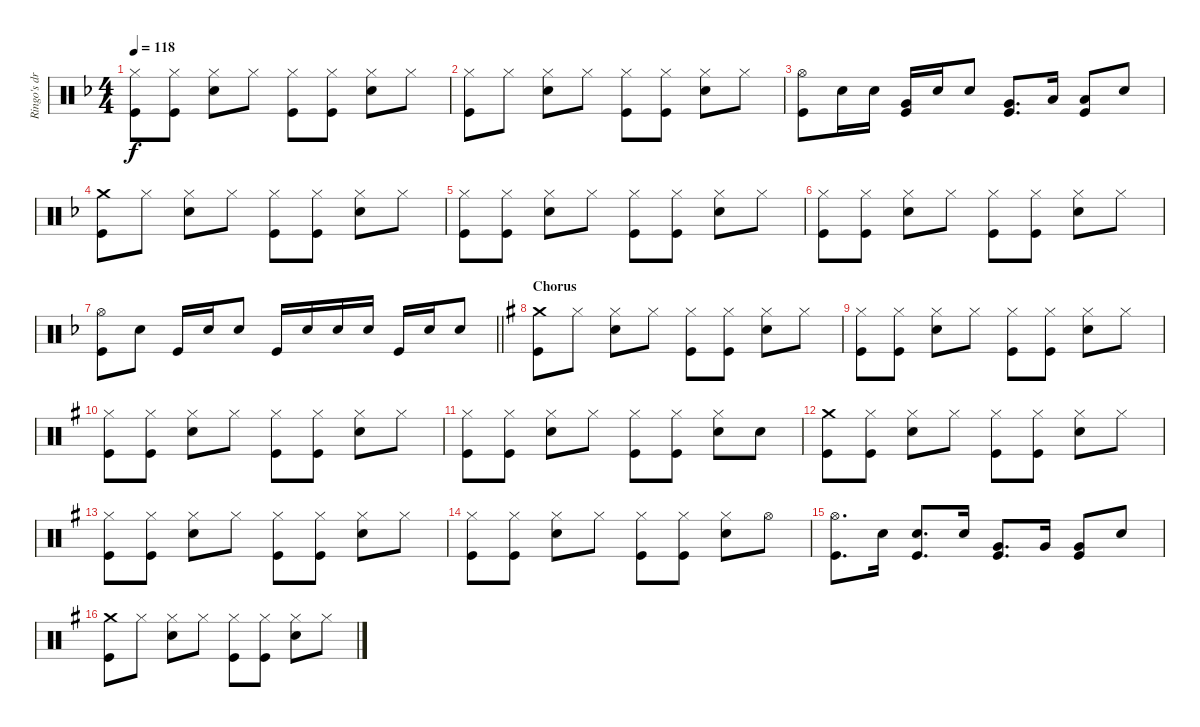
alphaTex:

\track ("Ringo's drums" "Ringo's dr") {instrument percussion}
\staff {score}
\articulation defaults
\ts (4 4)
\tempo 118
\clef neutral
\ks f
("Hi-Hat (closed)" "Kick (hit)").8{dy f} ("Hi-Hat (closed)" "Kick (hit)").8 ("Hi-Hat (closed)" "Electric Snare (hit)").8 "Hi-Hat (closed)".8 ("Hi-Hat (closed)" "Kick (hit)").8 ("Hi-Hat (closed)" "Kick (hit)").8 ("Hi-Hat (closed)" "Electric Snare (hit)").8 "Hi-Hat (closed)".8 |
("Hi-Hat (closed)" "Kick (hit)").8 "Hi-Hat (closed)".8 ("Hi-Hat (closed)" "Electric Snare (hit)").8 "Hi-Hat (closed)".8 ("Hi-Hat (closed)" "Kick (hit)").8 ("Hi-Hat (closed)" "Kick (hit)").8 ("Hi-Hat (closed)" "Electric Snare (hit)").8 "Hi-Hat (closed)".8 |
("Hi-Hat (open)" "Kick (hit)").8 "Electric Snare (hit)".16 "Electric Snare (hit)".16 ("Very Low Tom (hit)" "Kick (hit)").16 "Electric Snare (hit)".16 "Electric Snare (hit)".8 ("Very Low Tom (hit)" "Kick (hit)").8{d} "Low Floor Tom (hit)".16 ("Low Floor Tom (hit)" "Kick (hit)").8 "Electric Snare (hit)".8 |
("Crash medium (hit)" "Kick (hit)").8 "Hi-Hat (closed)".8 ("Hi-Hat (closed)" "Electric Snare (hit)").8 "Hi-Hat (closed)".8 ("Hi-Hat (closed)" "Kick (hit)").8 ("Hi-Hat (closed)" "Kick (hit)").8 ("Hi-Hat (closed)" "Electric Snare (hit)").8 "Hi-Hat (closed)".8 |
("Hi-Hat (closed)" "Kick (hit)").8 ("Hi-Hat (closed)" "Kick (hit)").8 ("Hi-Hat (closed)" "Electric Snare (hit)").8 "Hi-Hat (closed)".8 ("Hi-Hat (closed)" "Kick (hit)").8 ("Hi-Hat (closed)" "Kick (hit)").8 ("Hi-Hat (closed)" "Electric Snare (hit)").8 "Hi-Hat (closed)".8 |
("Hi-Hat (closed)" "Kick (hit)").8 ("Hi-Hat (closed)" "Kick (hit)").8 ("Hi-Hat (closed)" "Electric Snare (hit)").8 "Hi-Hat (closed)".8 ("Hi-Hat (closed)" "Kick (hit)").8 ("Hi-Hat (closed)" "Kick (hit)").8 ("Hi-Hat (closed)" "Electric Snare (hit)").8 "Hi-Hat (closed)".8 |
\barLineRight lightlight
("Hi-Hat (open)" "Kick (hit)").8 "Electric Snare (hit)".8 "Kick (hit)".16 "Electric Snare (hit)".16 "Electric Snare (hit)".8 "Kick (hit)".16 "Electric Snare (hit)".16 "Electric Snare (hit)".16 "Electric Snare (hit)".16 "Kick (hit)".16 "Electric Snare (hit)".16 "Electric Snare (hit)".8 |
\section ("" "Chorus")
\ks g
("Crash medium (hit)" "Kick (hit)").8 "Hi-Hat (closed)".8 ("Hi-Hat (closed)" "Electric Snare (hit)").8 "Hi-Hat (closed)".8 ("Hi-Hat (closed)" "Kick (hit)").8 ("Hi-Hat (closed)" "Kick (hit)").8 ("Hi-Hat (closed)" "Electric Snare (hit)").8 "Hi-Hat (closed)".8 |
("Hi-Hat (closed)" "Kick (hit)").8 ("Hi-Hat (closed)" "Kick (hit)").8 ("Hi-Hat (closed)" "Electric Snare (hit)").8 "Hi-Hat (closed)".8 ("Hi-Hat (closed)" "Kick (hit)").8 ("Hi-Hat (closed)" "Kick (hit)").8 ("Hi-Hat (closed)" "Electric Snare (hit)").8 "Hi-Hat (closed)".8 |
("Hi-Hat (closed)" "Kick (hit)").8 ("Hi-Hat (closed)" "Kick (hit)").8 ("Hi-Hat (closed)" "Electric Snare (hit)").8 "Hi-Hat (closed)".8 ("Hi-Hat (closed)" "Kick (hit)").8 ("Hi-Hat (closed)" "Kick (hit)").8 ("Hi-Hat (closed)" "Electric Snare (hit)").8 "Hi-Hat (closed)".8 |
("Hi-Hat (closed)" "Kick (hit)").8 ("Hi-Hat (closed)" "Kick (hit)").8 ("Hi-Hat (closed)" "Electric Snare (hit)").8 "Hi-Hat (closed)".8 ("Hi-Hat (closed)" "Kick (hit)").8 ("Hi-Hat (closed)" "Kick (hit)").8 ("Hi-Hat (closed)" "Electric Snare (hit)").8 "Electric Snare (hit)".8 |
("Crash medium (hit)" "Kick (hit)").8 ("Hi-Hat (closed)" "Kick (hit)").8 ("Hi-Hat (closed)" "Electric Snare (hit)").8 "Hi-Hat (closed)".8 ("Hi-Hat (closed)" "Kick (hit)").8 ("Hi-Hat (closed)" "Kick (hit)").8 ("Hi-Hat (closed)" "Electric Snare (hit)").8 "Hi-Hat (closed)".8 |
("Hi-Hat (closed)" "Kick (hit)").8 ("Hi-Hat (closed)" "Kick (hit)").8 ("Hi-Hat (closed)" "Electric Snare (hit)").8 "Hi-Hat (closed)".8 ("Hi-Hat (closed)" "Kick (hit)").8 ("Hi-Hat (closed)" "Kick (hit)").8 ("Hi-Hat (closed)" "Electric Snare (hit)").8 "Hi-Hat (closed)".8 |
("Hi-Hat (closed)" "Kick (hit)").8 ("Hi-Hat (closed)" "Kick (hit)").8 ("Hi-Hat (closed)" "Electric Snare (hit)").8 "Hi-Hat (closed)".8 ("Hi-Hat (closed)" "Kick (hit)").8 ("Hi-Hat (closed)" "Kick (hit)").8 ("Hi-Hat (closed)" "Electric Snare (hit)").8 "Hi-Hat (open)".8 |
("Hi-Hat (open)" "Kick (hit)").8{d} "Electric Snare (hit)".16 ("Electric Snare (hit)" "Kick (hit)").8{d} "Electric Snare (hit)".16 ("Very Low Tom (hit)" "Kick (hit)").8{d} "Very Low Tom (hit)".16 ("Very Low Tom (hit)" "Kick (hit)").8 "Electric Snare (hit)".8 |
("Crash medium (hit)" "Kick (hit)").8 "Hi-Hat (closed)".8 ("Hi-Hat (closed)" "Electric Snare (hit)").8 "Hi-Hat (closed)".8 ("Hi-Hat (closed)" "Kick (hit)").8 ("Hi-Hat (closed)" "Kick (hit)").8 ("Hi-Hat (closed)" "Electric Snare (hit)").8 "Hi-Hat (closed)".8
